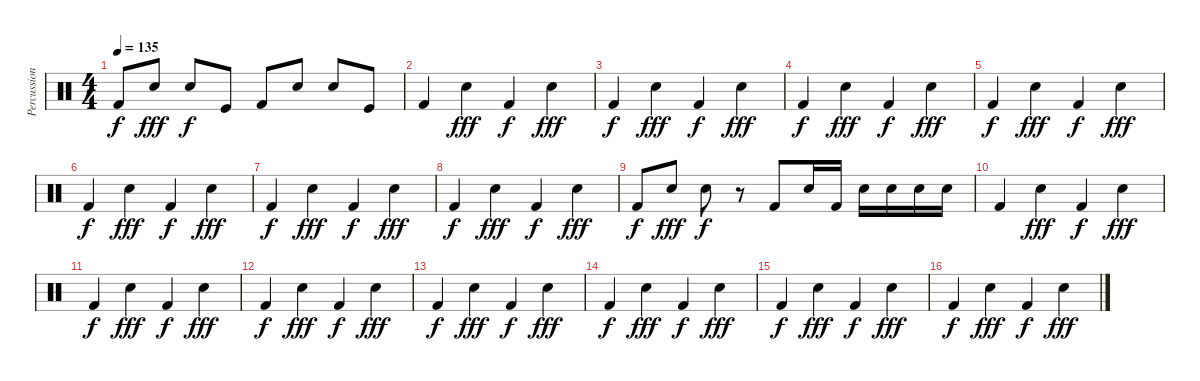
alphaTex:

\track ("Percussion1" "Percussion") {instrument percussion}
\staff {score}
\articulation defaults
\ts (4 4)
\tempo 135
\clef neutral
\ks c "Kick (hit) 2".8{dy f} "Electric Snare (hit)".8{dy fff} "Electric Snare (hit)".8{dy f} "Kick (hit)".8 "Kick (hit) 2".8 "Electric Snare (hit)".8 "Electric Snare (hit)".8 "Kick (hit)".8
|
"Kick (hit) 2".4 "Electric Snare (hit)".4{dy fff} "Kick (hit) 2".4{dy f} "Electric Snare (hit)".4{dy fff} |
"Kick (hit) 2".4{dy f} "Electric Snare (hit)".4{dy fff} "Kick (hit) 2".4{dy f} "Electric Snare (hit)".4{dy fff} |
"Kick (hit) 2".4{dy f} "Electric Snare (hit)".4{dy fff} "Kick (hit) 2".4{dy f} "Electric Snare (hit)".4{dy fff} |
"Kick (hit) 2".4{dy f} "Electric Snare (hit)".4{dy fff} "Kick (hit) 2".4{dy f} "Electric Snare (hit)".4{dy fff} |
"Kick (hit) 2".4{dy f} "Electric Snare (hit)".4{dy fff} "Kick (hit) 2".4{dy f} "Electric Snare (hit)".4{dy fff} |
"Kick (hit) 2".4{dy f} "Electric Snare (hit)".4{dy fff} "Kick (hit) 2".4{dy f} "Electric Snare (hit)".4{dy fff} |
"Kick (hit) 2".4{dy f} "Electric Snare (hit)".4{dy fff} "Kick (hit) 2".4{dy f} "Electric Snare (hit)".4{dy fff} |
"Kick (hit) 2".8{dy f} "Electric Snare (hit)".8{dy fff} "Electric Snare (hit)".8{dy f} r.8 "Kick (hit) 2".8 "Electric Snare (hit)".16 "Kick (hit) 2".16 "Electric Snare (hit)".16 "Snare (hit) 2".16 "Electric Snare (hit)".16 "Snare (hit) 2".16 |
"Kick (hit) 2".4 "Electric Snare (hit)".4{dy fff} "Kick (hit) 2".4{dy f} "Electric Snare (hit)".4{dy fff} |
"Kick (hit) 2".4{dy f} "Electric Snare (hit)".4{dy fff} "Kick (hit) 2".4{dy f} "Electric Snare (hit)".4{dy fff} |
"Kick (hit) 2".4{dy f} "Electric Snare (hit)".4{dy fff} "Kick (hit) 2".4{dy f} "Electric Snare (hit)".4{dy fff} |
"Kick (hit) 2".4{dy f} "Electric Snare (hit)".4{dy fff} "Kick (hit) 2".4{dy f} "Electric Snare (hit)".4{dy fff} |
"Kick (hit) 2".4{dy f} "Electric Snare (hit)".4{dy fff} "Kick (hit) 2".4{dy f} "Electric Snare (hit)".4{dy fff} |
"Kick (hit) 2".4{dy f} "Electric Snare (hit)".4{dy fff} "Kick (hit) 2".4{dy f} "Electric Snare (hit)".4{dy fff} |
"Kick (hit) 2".4{dy f} "Electric Snare (hit)".4{dy fff} "Kick (hit) 2".4{dy f} "Electric Snare (hit)".4{dy fff}
